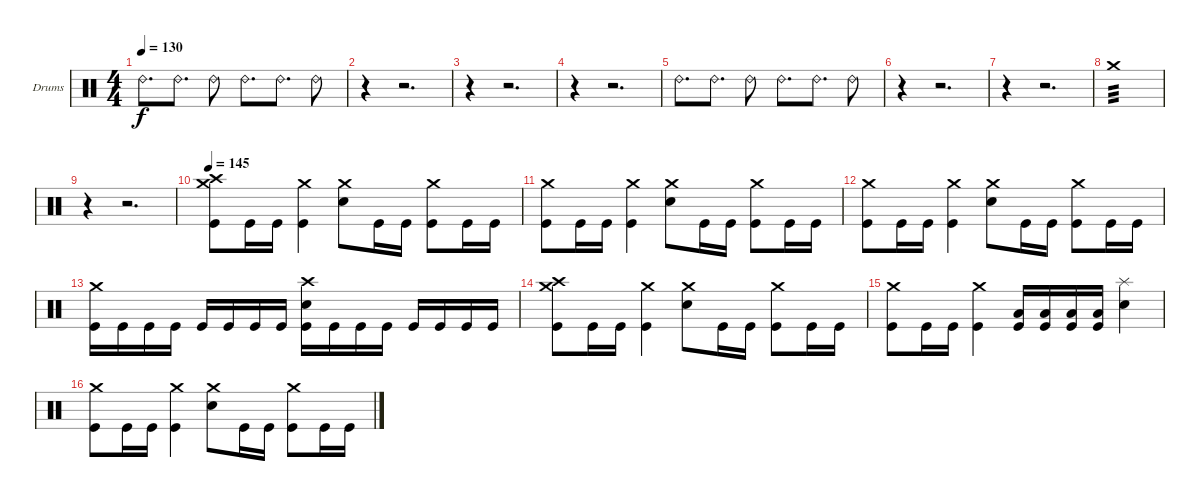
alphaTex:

\bracketExtendMode groupsimilarinstruments
\firstSystemTrackNameOrientation horizontal
\otherSystemsTrackNameOrientation horizontal
\track ("Drumkit" "Drums") {instrument percussion}
\staff {score}
\articulation defaults
\ts (4 4)
\beaming (8 2 2 2 2)
\tempo 130
\clef neutral
\ks c "Ride (bell) 2".8{d dy f} "Ride (bell) 2".8{d} "Ride (bell) 2".8 "Ride (bell) 2".8{d} "Ride (bell) 2".8{d} "Ride (bell) 2".8
|
r.4 r.2{d} |
r.4 r.2{d} |
r.4 r.2{d} |
"Ride (bell) 2".8{d} "Ride (bell) 2".8{d} "Ride (bell) 2".8 "Ride (bell) 2".8{d} "Ride (bell) 2".8{d} "Ride (bell) 2".8 |
r.4 r.2{d} |
r.4 r.2{d} |
"Crash medium (hit)".1{tp 3} |
r.4 r.2{d} |
\tempo 145
("Crash medium (hit)" "Crash high (hit)" "Kick (hit)").8 "Kick (hit)".16 "Kick (hit)".16 ("Crash medium (hit)" "Kick (hit)").4 ("Crash medium (hit)" "Snare (hit) 2").8 "Kick (hit)".16 "Kick (hit)".16 ("Crash medium (hit)" "Kick (hit)").8 "Kick (hit)".16 "Kick (hit)".16 |
("Crash medium (hit)" "Kick (hit)").8 "Kick (hit)".16 "Kick (hit)".16 ("Crash medium (hit)" "Kick (hit)").4 ("Crash medium (hit)" "Snare (hit) 2").8 "Kick (hit)".16 "Kick (hit)".16 ("Crash medium (hit)" "Kick (hit)").8 "Kick (hit)".16 "Kick (hit)".16 |
("Crash medium (hit)" "Kick (hit)").8 "Kick (hit)".16 "Kick (hit)".16 ("Crash medium (hit)" "Kick (hit)").4 ("Crash medium (hit)" "Snare (hit) 2").8 "Kick (hit)".16 "Kick (hit)".16 ("Crash medium (hit)" "Kick (hit)").8 "Kick (hit)".16 "Kick (hit)".16 |
("Crash medium (hit)" "Kick (hit)").16 "Kick (hit)".16 "Kick (hit)".16 "Kick (hit)".16 "Kick (hit)".16 "Kick (hit)".16 "Kick (hit)".16 "Kick (hit)".16 ("Crash high (hit)" "Snare (hit) 2" "Kick (hit)").16 "Kick (hit)".16 "Kick (hit)".16 "Kick (hit)".16 "Kick (hit)".16 "Kick (hit)".16 "Kick (hit)".16 "Kick (hit)".16 |
("Crash medium (hit)" "Crash high (hit)" "Kick (hit)").8 "Kick (hit)".16 "Kick (hit)".16 ("Crash medium (hit)" "Kick (hit)").4 ("Crash medium (hit)" "Snare (hit) 2").8 "Kick (hit)".16 "Kick (hit)".16 ("Crash medium (hit)" "Kick (hit)").8 "Kick (hit)".16 "Kick (hit)".16 |
("Crash medium (hit)" "Kick (hit)").8 "Kick (hit)".16 "Kick (hit)".16 ("Crash medium (hit)" "Kick (hit)").4 ("Low Tom (hit)" "Kick (hit)").16 ("Low Tom (hit)" "Kick (hit)").16 ("Low Tom (hit)" "Kick (hit)").16 ("Low Tom (hit)" "Kick (hit)").16 ("Splash (hit)" "Snare (hit) 2").4 |
("Crash medium (hit)" "Kick (hit)").8 "Kick (hit)".16 "Kick (hit)".16 ("Crash medium (hit)" "Kick (hit)").4 ("Crash medium (hit)" "Snare (hit) 2").8 "Kick (hit)".16 "Kick (hit)".16 ("Crash medium (hit)" "Kick (hit)").8 "Kick (hit)".16 "Kick (hit)".16
